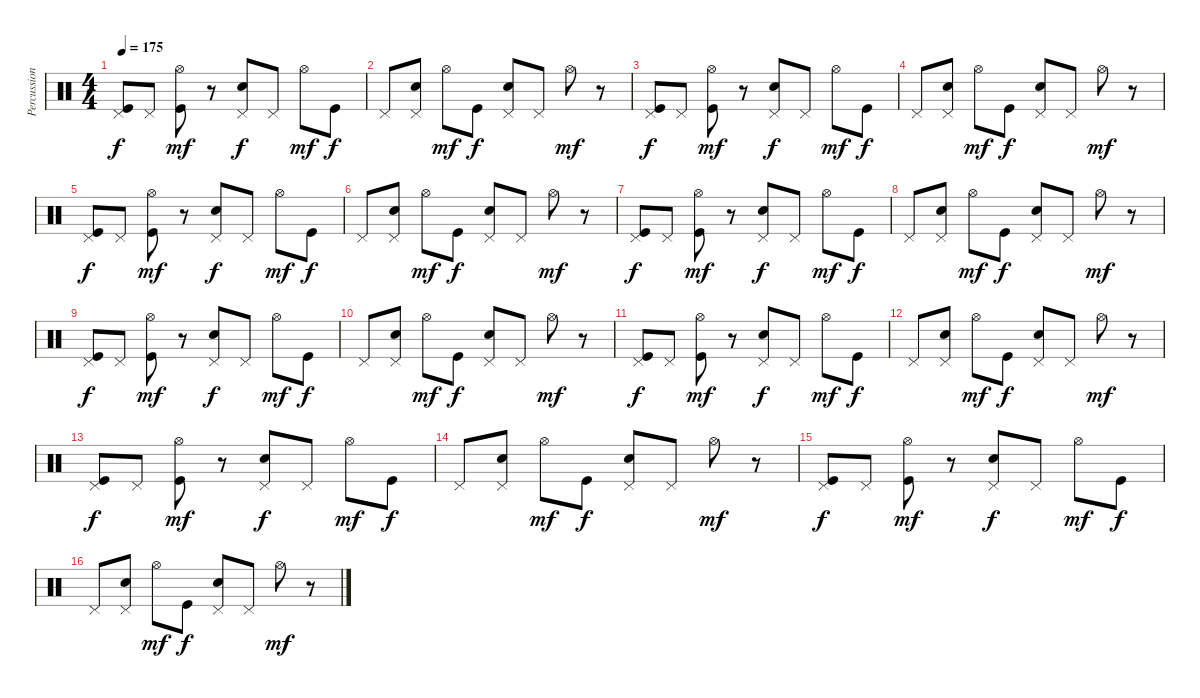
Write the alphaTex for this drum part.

\track ("Percussions" "Percussion") {instrument percussion}
\staff {score}
\articulation defaults
\ts (4 4)
\tempo 175
\clef neutral
\ks c
("Pedal Hi-Hat (hit)" "Kick (hit)").8{dy f} "Pedal Hi-Hat (hit)".8 ("Hi-Hat (open)" "Kick (hit)").8{dy mf} r.8 ("Pedal Hi-Hat (hit)" "Snare (hit) 2").8{dy f} "Pedal Hi-Hat (hit)".8 "Hi-Hat (open)".8{dy mf} "Kick (hit)".8{dy f} |
"Pedal Hi-Hat (hit)".8 ("Pedal Hi-Hat (hit)" "Snare (hit) 2").8 "Hi-Hat (open)".8{dy mf} "Kick (hit)".8{dy f} ("Pedal Hi-Hat (hit)" "Snare (hit) 2").8 "Pedal Hi-Hat (hit)".8 "Hi-Hat (open)".8{dy mf} r.8 |
("Pedal Hi-Hat (hit)" "Kick (hit)").8{dy f} "Pedal Hi-Hat (hit)".8 ("Hi-Hat (open)" "Kick (hit)").8{dy mf} r.8 ("Pedal Hi-Hat (hit)" "Snare (hit) 2").8{dy f} "Pedal Hi-Hat (hit)".8 "Hi-Hat (open)".8{dy mf} "Kick (hit)".8{dy f} |
"Pedal Hi-Hat (hit)".8 ("Pedal Hi-Hat (hit)" "Snare (hit) 2").8 "Hi-Hat (open)".8{dy mf} "Kick (hit)".8{dy f} ("Pedal Hi-Hat (hit)" "Snare (hit) 2").8 "Pedal Hi-Hat (hit)".8 "Hi-Hat (open)".8{dy mf} r.8 |
("Pedal Hi-Hat (hit)" "Kick (hit)").8{dy f} "Pedal Hi-Hat (hit)".8 ("Hi-Hat (open)" "Kick (hit)").8{dy mf} r.8 ("Pedal Hi-Hat (hit)" "Snare (hit) 2").8{dy f} "Pedal Hi-Hat (hit)".8 "Hi-Hat (open)".8{dy mf} "Kick (hit)".8{dy f} |
"Pedal Hi-Hat (hit)".8 ("Pedal Hi-Hat (hit)" "Snare (hit) 2").8 "Hi-Hat (open)".8{dy mf} "Kick (hit)".8{dy f} ("Pedal Hi-Hat (hit)" "Snare (hit) 2").8 "Pedal Hi-Hat (hit)".8 "Hi-Hat (open)".8{dy mf} r.8 |
("Pedal Hi-Hat (hit)" "Kick (hit)").8{dy f} "Pedal Hi-Hat (hit)".8 ("Hi-Hat (open)" "Kick (hit)").8{dy mf} r.8 ("Pedal Hi-Hat (hit)" "Snare (hit) 2").8{dy f} "Pedal Hi-Hat (hit)".8 "Hi-Hat (open)".8{dy mf} "Kick (hit)".8{dy f} |
"Pedal Hi-Hat (hit)".8 ("Pedal Hi-Hat (hit)" "Snare (hit) 2").8 "Hi-Hat (open)".8{dy mf} "Kick (hit)".8{dy f} ("Pedal Hi-Hat (hit)" "Snare (hit) 2").8 "Pedal Hi-Hat (hit)".8 "Hi-Hat (open)".8{dy mf} r.8 |
("Pedal Hi-Hat (hit)" "Kick (hit)").8{dy f} "Pedal Hi-Hat (hit)".8 ("Hi-Hat (open)" "Kick (hit)").8{dy mf} r.8 ("Pedal Hi-Hat (hit)" "Snare (hit) 2").8{dy f} "Pedal Hi-Hat (hit)".8 "Hi-Hat (open)".8{dy mf} "Kick (hit)".8{dy f} |
"Pedal Hi-Hat (hit)".8 ("Pedal Hi-Hat (hit)" "Snare (hit) 2").8 "Hi-Hat (open)".8{dy mf} "Kick (hit)".8{dy f} ("Pedal Hi-Hat (hit)" "Snare (hit) 2").8 "Pedal Hi-Hat (hit)".8 "Hi-Hat (open)".8{dy mf} r.8 |
("Pedal Hi-Hat (hit)" "Kick (hit)").8{dy f} "Pedal Hi-Hat (hit)".8 ("Hi-Hat (open)" "Kick (hit)").8{dy mf} r.8 ("Pedal Hi-Hat (hit)" "Snare (hit) 2").8{dy f} "Pedal Hi-Hat (hit)".8 "Hi-Hat (open)".8{dy mf} "Kick (hit)".8{dy f} |
"Pedal Hi-Hat (hit)".8 ("Pedal Hi-Hat (hit)" "Snare (hit) 2").8 "Hi-Hat (open)".8{dy mf} "Kick (hit)".8{dy f} ("Pedal Hi-Hat (hit)" "Snare (hit) 2").8 "Pedal Hi-Hat (hit)".8 "Hi-Hat (open)".8{dy mf} r.8 |
("Pedal Hi-Hat (hit)" "Kick (hit)").8{dy f} "Pedal Hi-Hat (hit)".8 ("Hi-Hat (open)" "Kick (hit)").8{dy mf} r.8 ("Pedal Hi-Hat (hit)" "Snare (hit) 2").8{dy f} "Pedal Hi-Hat (hit)".8 "Hi-Hat (open)".8{dy mf} "Kick (hit)".8{dy f} |
"Pedal Hi-Hat (hit)".8 ("Pedal Hi-Hat (hit)" "Snare (hit) 2").8 "Hi-Hat (open)".8{dy mf} "Kick (hit)".8{dy f} ("Pedal Hi-Hat (hit)" "Snare (hit) 2").8 "Pedal Hi-Hat (hit)".8 "Hi-Hat (open)".8{dy mf} r.8 |
("Pedal Hi-Hat (hit)" "Kick (hit)").8{dy f} "Pedal Hi-Hat (hit)".8 ("Hi-Hat (open)" "Kick (hit)").8{dy mf} r.8 ("Pedal Hi-Hat (hit)" "Snare (hit) 2").8{dy f} "Pedal Hi-Hat (hit)".8 "Hi-Hat (open)".8{dy mf} "Kick (hit)".8{dy f} |
"Pedal Hi-Hat (hit)".8 ("Pedal Hi-Hat (hit)" "Snare (hit) 2").8 "Hi-Hat (open)".8{dy mf} "Kick (hit)".8{dy f} ("Pedal Hi-Hat (hit)" "Snare (hit) 2").8 "Pedal Hi-Hat (hit)".8 "Hi-Hat (open)".8{dy mf} r.8
